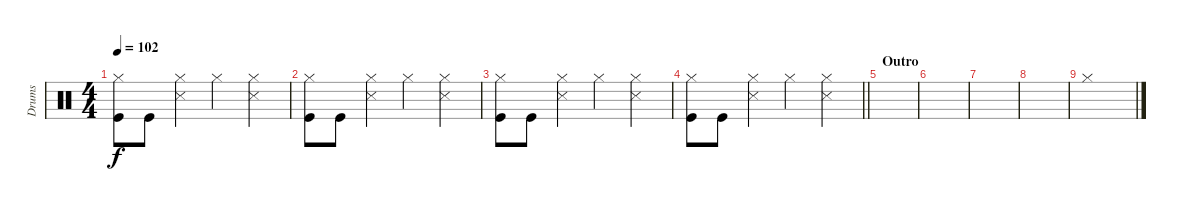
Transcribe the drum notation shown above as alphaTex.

\track ("Drums" "Drums") {instrument percussion}
\staff {score}
\articulation defaults
\ts (4 4)
\tempo 102
\clef neutral
\ks c
("Hi-Hat (closed)" "Kick (hit)").8{dy f} "Kick (hit)".8 ("Hi-Hat (closed)" "Snare (side stick) 3").4 "Hi-Hat (closed)".4 ("Hi-Hat (closed)" "Snare (side stick) 3").4 |
("Hi-Hat (closed)" "Kick (hit)").8 "Kick (hit)".8 ("Hi-Hat (closed)" "Snare (side stick) 3").4 "Hi-Hat (closed)".4 ("Hi-Hat (closed)" "Snare (side stick) 3").4 |
("Hi-Hat (closed)" "Kick (hit)").8 "Kick (hit)".8 ("Hi-Hat (closed)" "Snare (side stick) 3").4 "Hi-Hat (closed)".4 ("Hi-Hat (closed)" "Snare (side stick) 3").4 |
\barLineRight lightlight
("Hi-Hat (closed)" "Kick (hit)").8 "Kick (hit)".8 ("Hi-Hat (closed)" "Snare (side stick) 3").4 "Hi-Hat (closed)".4 ("Hi-Hat (closed)" "Snare (side stick) 3").4 |
\section ("" "Outro")
|
|
|
|
"Hi-Hat (closed)".1
